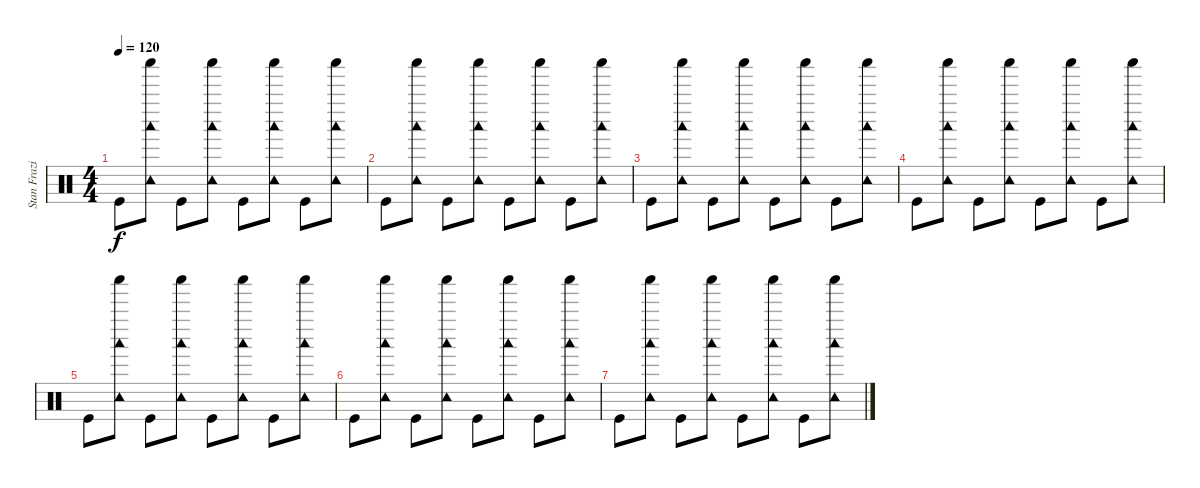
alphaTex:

\track ("Stan Frazier - Drums" "Stan Frazi") {instrument percussion}
\staff {score}
\articulation defaults
\ts (4 4)
\tempo 120
\clef neutral
\ks c "Kick (hit)".8{dy f}
("Shaker (hit)" "Woodblock low (hit)" "Tambourine (hit)").8 "Kick (hit)".8 ("Shaker (hit)" "Woodblock low (hit)" "Tambourine (hit)").8 "Kick (hit)".8 ("Shaker (hit)" "Woodblock low (hit)" "Tambourine (hit)").8 "Kick (hit)".8 ("Shaker (hit)" "Woodblock low (hit)" "Tambourine (hit)").8 |
"Kick (hit)".8 ("Shaker (hit)" "Woodblock low (hit)" "Tambourine (hit)").8 "Kick (hit)".8 ("Shaker (hit)" "Woodblock low (hit)" "Tambourine (hit)").8 "Kick (hit)".8 ("Shaker (hit)" "Woodblock low (hit)" "Tambourine (hit)").8 "Kick (hit)".8 ("Shaker (hit)" "Woodblock low (hit)" "Tambourine (hit)").8 |
"Kick (hit)".8 ("Shaker (hit)" "Woodblock low (hit)" "Tambourine (hit)").8 "Kick (hit)".8 ("Shaker (hit)" "Woodblock low (hit)" "Tambourine (hit)").8 "Kick (hit)".8 ("Shaker (hit)" "Woodblock low (hit)" "Tambourine (hit)").8 "Kick (hit)".8 ("Shaker (hit)" "Woodblock low (hit)" "Tambourine (hit)").8 |
"Kick (hit)".8{volume 3} ("Shaker (hit)" "Woodblock low (hit)" "Tambourine (hit)").8 "Kick (hit)".8 ("Shaker (hit)" "Woodblock low (hit)" "Tambourine (hit)").8 "Kick (hit)".8 ("Shaker (hit)" "Woodblock low (hit)" "Tambourine (hit)").8 "Kick (hit)".8 ("Shaker (hit)" "Woodblock low (hit)" "Tambourine (hit)").8 |
"Kick (hit)".8 ("Shaker (hit)" "Woodblock low (hit)" "Tambourine (hit)").8 "Kick (hit)".8 ("Shaker (hit)" "Woodblock low (hit)" "Tambourine (hit)").8 "Kick (hit)".8 ("Shaker (hit)" "Woodblock low (hit)" "Tambourine (hit)").8 "Kick (hit)".8 ("Shaker (hit)" "Woodblock low (hit)" "Tambourine (hit)").8 |
"Kick (hit)".8{volume 0} ("Shaker (hit)" "Woodblock low (hit)" "Tambourine (hit)").8 "Kick (hit)".8 ("Shaker (hit)" "Woodblock low (hit)" "Tambourine (hit)").8 "Kick (hit)".8 ("Shaker (hit)" "Woodblock low (hit)" "Tambourine (hit)").8 "Kick (hit)".8 ("Shaker (hit)" "Woodblock low (hit)" "Tambourine (hit)").8 |
"Kick (hit)".8 ("Shaker (hit)" "Woodblock low (hit)" "Tambourine (hit)").8 "Kick (hit)".8 ("Shaker (hit)" "Woodblock low (hit)" "Tambourine (hit)").8 "Kick (hit)".8 ("Shaker (hit)" "Woodblock low (hit)" "Tambourine (hit)").8 "Kick (hit)".8 ("Shaker (hit)" "Woodblock low (hit)" "Tambourine (hit)").8
